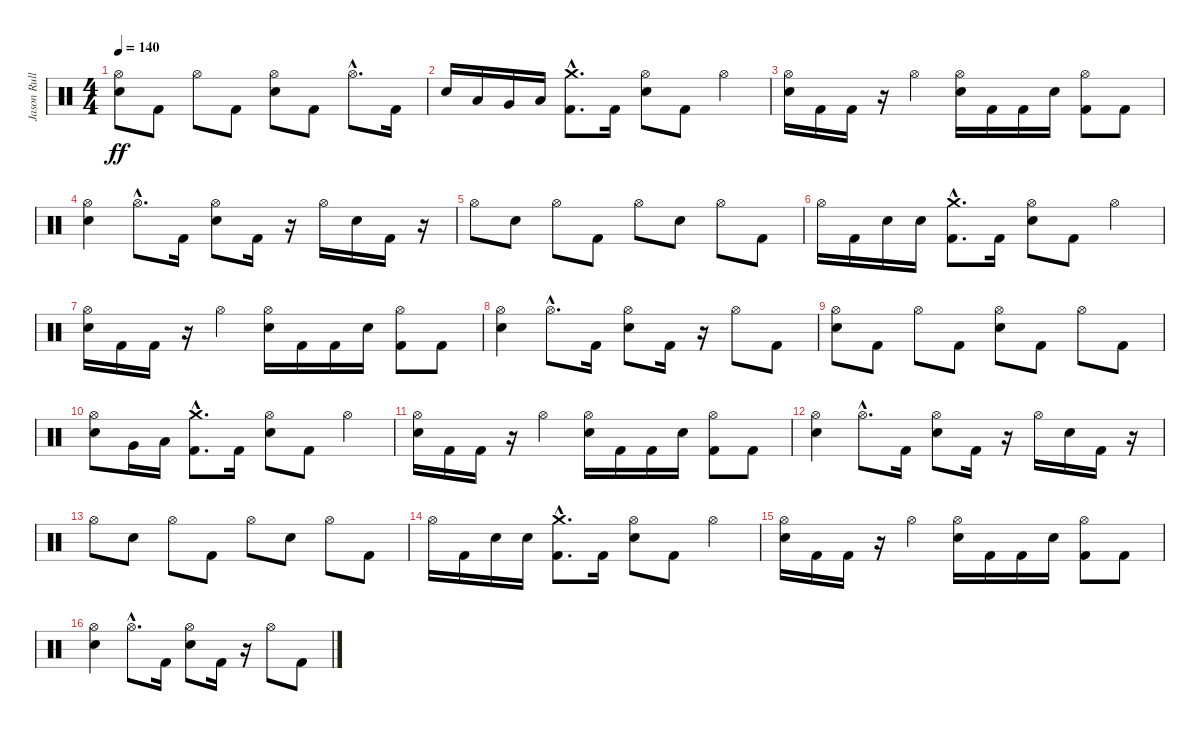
\track ("Jason Rullo" "Jason Rull") {instrument percussion}
\staff {score}
\articulation defaults
\ts (4 4)
\tempo 140
\clef neutral
\ks c
("Electric Snare (hit)" "Hi-Hat (open)").8{dy ff} "Kick (hit) 2".8 "Hi-Hat (open)".8 "Kick (hit) 2".8 ("Electric Snare (hit)" "Hi-Hat (open)").8 "Kick (hit) 2".8 "Hi-Hat (open)"{hac}.8{d} "Kick (hit) 2".16 |
"Electric Snare (hit)".16 "Low Tom (hit)".16 "Very Low Tom (hit)".16 "Low Floor Tom (hit)".16 ("Crash medium (hit)"{hac} "Kick (hit) 2"{hac}).8{d} "Kick (hit) 2".16 ("Electric Snare (hit)" "Hi-Hat (open)").8 "Kick (hit) 2".8 "Hi-Hat (open)".4 |
("Electric Snare (hit)" "Hi-Hat (open)").16 "Kick (hit) 2".16 "Kick (hit) 2".16 r.16 "Hi-Hat (open)".4 ("Electric Snare (hit)" "Hi-Hat (open)").16 "Kick (hit) 2".16 "Kick (hit) 2".16 "Electric Snare (hit)".16 ("Hi-Hat (open)" "Kick (hit) 2").8 "Kick (hit) 2".8 |
("Electric Snare (hit)" "Hi-Hat (open)").4 "Hi-Hat (open)"{hac}.8{d} "Kick (hit) 2".16 ("Electric Snare (hit)" "Hi-Hat (open)").8 "Kick (hit) 2".16 r.16 "Hi-Hat (open)".16 "Electric Snare (hit)".16 "Kick (hit) 2".16 r.16 |
"Hi-Hat (open)".8 "Electric Snare (hit)".8 "Hi-Hat (open)".8 "Kick (hit) 2".8 "Hi-Hat (open)".8 "Electric Snare (hit)".8 "Hi-Hat (open)".8 "Kick (hit) 2".8 |
"Hi-Hat (open)".16 "Kick (hit) 2".16 "Electric Snare (hit)".16 "Electric Snare (hit)".16 ("Crash medium (hit)"{hac} "Kick (hit) 2"{hac}).8{d} "Kick (hit) 2".16 ("Electric Snare (hit)" "Hi-Hat (open)").8 "Kick (hit) 2".8 "Hi-Hat (open)".4 |
("Electric Snare (hit)" "Hi-Hat (open)").16 "Kick (hit) 2".16 "Kick (hit) 2".16 r.16 "Hi-Hat (open)".4 ("Electric Snare (hit)" "Hi-Hat (open)").16 "Kick (hit) 2".16 "Kick (hit) 2".16 "Electric Snare (hit)".16 ("Hi-Hat (open)" "Kick (hit) 2").8 "Kick (hit) 2".8 |
("Electric Snare (hit)" "Hi-Hat (open)").4 "Hi-Hat (open)"{hac}.8{d} "Kick (hit) 2".16 ("Electric Snare (hit)" "Hi-Hat (open)").8 "Kick (hit) 2".16 r.16 "Hi-Hat (open)".8 "Kick (hit) 2".8 |
("Electric Snare (hit)" "Hi-Hat (open)").8 "Kick (hit) 2".8 "Hi-Hat (open)".8 "Kick (hit) 2".8 ("Electric Snare (hit)" "Hi-Hat (open)").8 "Kick (hit) 2".8 "Hi-Hat (open)".8 "Kick (hit) 2".8 |
("Electric Snare (hit)" "Hi-Hat (open)").8 "Very Low Tom (hit)".16 "Low Floor Tom (hit)".16 ("Crash medium (hit)"{hac} "Kick (hit) 2"{hac}).8{d} "Kick (hit) 2".16 ("Electric Snare (hit)" "Hi-Hat (open)").8 "Kick (hit) 2".8 "Hi-Hat (open)".4 |
("Electric Snare (hit)" "Hi-Hat (open)").16 "Kick (hit) 2".16 "Kick (hit) 2".16 r.16 "Hi-Hat (open)".4 ("Electric Snare (hit)" "Hi-Hat (open)").16 "Kick (hit) 2".16 "Kick (hit) 2".16 "Electric Snare (hit)".16 ("Hi-Hat (open)" "Kick (hit) 2").8 "Kick (hit) 2".8 |
("Electric Snare (hit)" "Hi-Hat (open)").4 "Hi-Hat (open)"{hac}.8{d} "Kick (hit) 2".16 ("Electric Snare (hit)" "Hi-Hat (open)").8 "Kick (hit) 2".16 r.16 "Hi-Hat (open)".16 "Electric Snare (hit)".16 "Kick (hit) 2".16 r.16 |
"Hi-Hat (open)".8 "Electric Snare (hit)".8 "Hi-Hat (open)".8 "Kick (hit) 2".8 "Hi-Hat (open)".8 "Electric Snare (hit)".8 "Hi-Hat (open)".8 "Kick (hit) 2".8 |
"Hi-Hat (open)".16 "Kick (hit) 2".16 "Electric Snare (hit)".16 "Electric Snare (hit)".16 ("Crash medium (hit)"{hac} "Kick (hit) 2"{hac}).8{d} "Kick (hit) 2".16 ("Electric Snare (hit)" "Hi-Hat (open)").8 "Kick (hit) 2".8 "Hi-Hat (open)".4 |
("Electric Snare (hit)" "Hi-Hat (open)").16 "Kick (hit) 2".16 "Kick (hit) 2".16 r.16 "Hi-Hat (open)".4 ("Electric Snare (hit)" "Hi-Hat (open)").16 "Kick (hit) 2".16 "Kick (hit) 2".16 "Electric Snare (hit)".16 ("Hi-Hat (open)" "Kick (hit) 2").8 "Kick (hit) 2".8 |
("Electric Snare (hit)" "Hi-Hat (open)").4 "Hi-Hat (open)"{hac}.8{d} "Kick (hit) 2".16 ("Electric Snare (hit)" "Hi-Hat (open)").8 "Kick (hit) 2".16 r.16 "Hi-Hat (open)".8 "Kick (hit) 2".8
